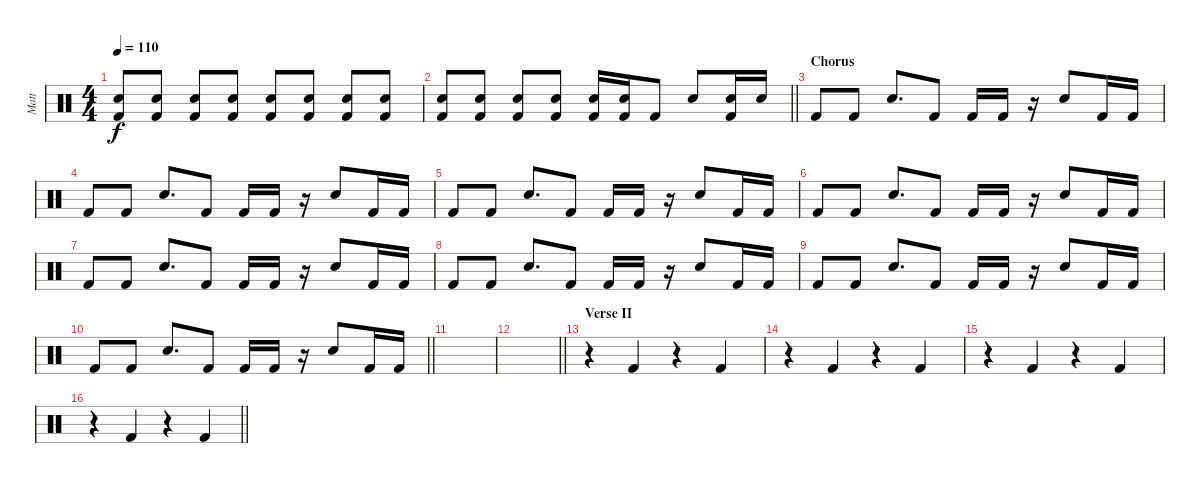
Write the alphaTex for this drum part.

\track ("Matt" "Matt") {instrument percussion}
\staff {score}
\articulation defaults
\ts (4 4)
\tempo 110
\clef neutral
\ks c
("Snare (hit) 2" "Kick (hit) 2").8{dy f} ("Snare (hit) 2" "Kick (hit) 2").8 ("Snare (hit) 2" "Kick (hit) 2").8 ("Snare (hit) 2" "Kick (hit) 2").8 ("Snare (hit) 2" "Kick (hit) 2").8 ("Snare (hit) 2" "Kick (hit) 2").8 ("Snare (hit) 2" "Kick (hit) 2").8 ("Snare (hit) 2" "Kick (hit) 2").8 |
\barLineRight lightlight
("Snare (hit) 2" "Kick (hit) 2").8 ("Snare (hit) 2" "Kick (hit) 2").8 ("Snare (hit) 2" "Kick (hit) 2").8 ("Snare (hit) 2" "Kick (hit) 2").8 ("Snare (hit) 2" "Kick (hit) 2").16 ("Snare (hit) 2" "Kick (hit) 2").16 "Kick (hit) 2".8 "Snare (hit) 2".8 ("Snare (hit) 2" "Kick (hit) 2").16 "Snare (hit) 2".16 |
\section ("" "Chorus")
"Kick (hit) 2".8 "Kick (hit) 2".8 "Snare (hit) 2".8{d} "Kick (hit) 2".8 "Kick (hit) 2".16 "Kick (hit) 2".16 r.16 "Snare (hit) 2".8 "Kick (hit) 2".16 "Kick (hit) 2".16 |
"Kick (hit) 2".8 "Kick (hit) 2".8 "Snare (hit) 2".8{d} "Kick (hit) 2".8 "Kick (hit) 2".16 "Kick (hit) 2".16 r.16 "Snare (hit) 2".8 "Kick (hit) 2".16 "Kick (hit) 2".16 |
"Kick (hit) 2".8 "Kick (hit) 2".8 "Snare (hit) 2".8{d} "Kick (hit) 2".8 "Kick (hit) 2".16 "Kick (hit) 2".16 r.16 "Snare (hit) 2".8 "Kick (hit) 2".16 "Kick (hit) 2".16 |
"Kick (hit) 2".8 "Kick (hit) 2".8 "Snare (hit) 2".8{d} "Kick (hit) 2".8 "Kick (hit) 2".16 "Kick (hit) 2".16 r.16 "Snare (hit) 2".8 "Kick (hit) 2".16 "Kick (hit) 2".16 |
"Kick (hit) 2".8 "Kick (hit) 2".8 "Snare (hit) 2".8{d} "Kick (hit) 2".8 "Kick (hit) 2".16 "Kick (hit) 2".16 r.16 "Snare (hit) 2".8 "Kick (hit) 2".16 "Kick (hit) 2".16 |
"Kick (hit) 2".8 "Kick (hit) 2".8 "Snare (hit) 2".8{d} "Kick (hit) 2".8 "Kick (hit) 2".16 "Kick (hit) 2".16 r.16 "Snare (hit) 2".8 "Kick (hit) 2".16 "Kick (hit) 2".16 |
"Kick (hit) 2".8 "Kick (hit) 2".8 "Snare (hit) 2".8{d} "Kick (hit) 2".8 "Kick (hit) 2".16 "Kick (hit) 2".16 r.16 "Snare (hit) 2".8 "Kick (hit) 2".16 "Kick (hit) 2".16 |
\barLineRight lightlight "Kick (hit) 2".8 "Kick (hit) 2".8 "Snare (hit) 2".8{d} "Kick (hit) 2".8 "Kick (hit) 2".16 "Kick (hit) 2".16
r.16 "Snare (hit) 2".8 "Kick (hit) 2".16 "Kick (hit) 2".16 |
\section ("" "")
|
\barLineRight lightlight
|
\section ("" "Verse II")
r.4 "Kick (hit) 2".4 r.4 "Kick (hit) 2".4 |
r.4 "Kick (hit) 2".4 r.4 "Kick (hit) 2".4 |
r.4 "Kick (hit) 2".4 r.4 "Kick (hit) 2".4 |
\barLineRight lightlight
r.4 "Kick (hit) 2".4 r.4 "Kick (hit) 2".4
